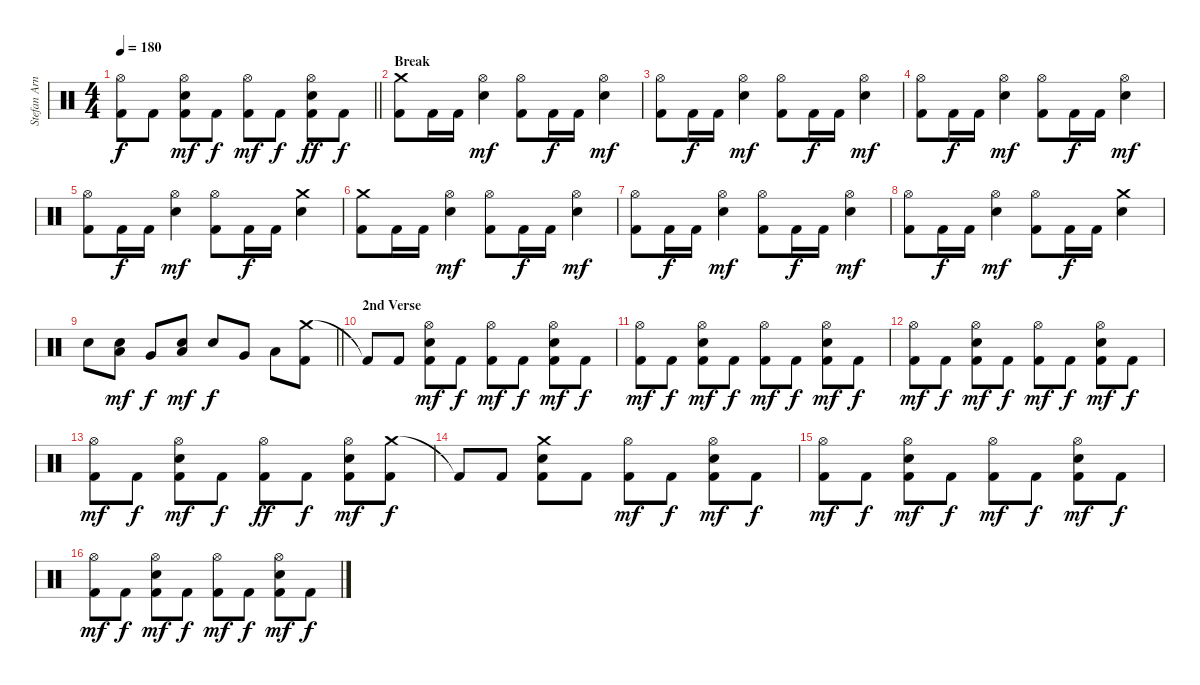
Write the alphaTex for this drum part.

\track ("Stefan Arnold" "Stefan Arn") {instrument percussion}
\staff {score}
\articulation defaults
\ts (4 4)
\tempo 180
\clef neutral
\barLineRight lightlight
\ks c
("Hi-Hat (open)" "Kick (hit) 2").8{dy f} "Kick (hit) 2".8 ("Hi-Hat (open)" "Electric Snare (hit)" "Kick (hit) 2").8{dy mf} "Kick (hit) 2".8{dy f} ("Hi-Hat (open)" "Kick (hit) 2").8{dy mf} "Kick (hit) 2".8{dy f} ("Hi-Hat (open)" "Electric Snare (hit)" "Kick (hit) 2").8{dy ff} "Kick (hit) 2".8{dy f} |
\section ("" "Break")
("Crash medium (hit)" "Kick (hit) 2").8 "Kick (hit) 2".16 "Kick (hit) 2".16 ("Hi-Hat (open)" "Electric Snare (hit)").4{dy mf} ("Hi-Hat (open)" "Kick (hit) 2").8 "Kick (hit) 2".16{dy f} "Kick (hit) 2".16 ("Hi-Hat (open)" "Electric Snare (hit)").4{dy mf} |
("Hi-Hat (open)" "Kick (hit) 2").8 "Kick (hit) 2".16{dy f} "Kick (hit) 2".16 ("Hi-Hat (open)" "Electric Snare (hit)").4{dy mf} ("Hi-Hat (open)" "Kick (hit) 2").8 "Kick (hit) 2".16{dy f} "Kick (hit) 2".16 ("Hi-Hat (open)" "Electric Snare (hit)").4{dy mf} |
("Hi-Hat (open)" "Kick (hit) 2").8 "Kick (hit) 2".16{dy f} "Kick (hit) 2".16 ("Hi-Hat (open)" "Electric Snare (hit)").4{dy mf} ("Hi-Hat (open)" "Kick (hit) 2").8 "Kick (hit) 2".16{dy f} "Kick (hit) 2".16 ("Hi-Hat (open)" "Electric Snare (hit)").4{dy mf} |
("Hi-Hat (open)" "Kick (hit) 2").8 "Kick (hit) 2".16{dy f} "Kick (hit) 2".16 ("Hi-Hat (open)" "Electric Snare (hit)").4{dy mf} ("Hi-Hat (open)" "Kick (hit) 2").8 "Kick (hit) 2".16{dy f} "Kick (hit) 2".16 ("Crash medium (hit)" "Electric Snare (hit)").4 |
("Crash medium (hit)" "Kick (hit) 2").8 "Kick (hit) 2".16 "Kick (hit) 2".16 ("Hi-Hat (open)" "Electric Snare (hit)").4{dy mf} ("Hi-Hat (open)" "Kick (hit) 2").8 "Kick (hit) 2".16{dy f} "Kick (hit) 2".16 ("Hi-Hat (open)" "Electric Snare (hit)").4{dy mf} |
("Hi-Hat (open)" "Kick (hit) 2").8 "Kick (hit) 2".16{dy f} "Kick (hit) 2".16 ("Hi-Hat (open)" "Electric Snare (hit)").4{dy mf} ("Hi-Hat (open)" "Kick (hit) 2").8 "Kick (hit) 2".16{dy f} "Kick (hit) 2".16 ("Hi-Hat (open)" "Electric Snare (hit)").4{dy mf} |
("Hi-Hat (open)" "Kick (hit) 2").8 "Kick (hit) 2".16{dy f} "Kick (hit) 2".16 ("Hi-Hat (open)" "Electric Snare (hit)").4{dy mf} ("Hi-Hat (open)" "Kick (hit) 2").8 "Kick (hit) 2".16{dy f} "Kick (hit) 2".16 ("Crash medium (hit)" "Electric Snare (hit)").4 |
\barLineRight lightlight "Electric Snare (hit)".8
("Electric Snare (hit)" "Low Tom (hit)").8{dy mf} "Very Low Tom (hit)".8{dy f} ("Electric Snare (hit)" "Low Tom (hit)").8{dy mf} "Electric Snare (hit)".8{dy f} "Very Low Tom (hit)".8 "Low Floor Tom (hit)".8 ("Crash medium (hit)" "Kick (hit) 2").8 |
\section ("" "2nd Verse")
"Kick (hit) 2"{t}.8 "Kick (hit) 2".8 ("Hi-Hat (open)" "Electric Snare (hit)" "Kick (hit) 2").8{dy mf} "Kick (hit) 2".8{dy f} ("Hi-Hat (open)" "Kick (hit) 2").8{dy mf} "Kick (hit) 2".8{dy f} ("Hi-Hat (open)" "Electric Snare (hit)" "Kick (hit) 2").8{dy mf} "Kick (hit) 2".8{dy f} |
("Hi-Hat (open)" "Kick (hit) 2").8{dy mf} "Kick (hit) 2".8{dy f} ("Hi-Hat (open)" "Electric Snare (hit)" "Kick (hit) 2").8{dy mf} "Kick (hit) 2".8{dy f} ("Hi-Hat (open)" "Kick (hit) 2").8{dy mf} "Kick (hit) 2".8{dy f} ("Hi-Hat (open)" "Electric Snare (hit)" "Kick (hit) 2").8{dy mf} "Kick (hit) 2".8{dy f} |
("Hi-Hat (open)" "Kick (hit) 2").8{dy mf} "Kick (hit) 2".8{dy f} ("Hi-Hat (open)" "Electric Snare (hit)" "Kick (hit) 2").8{dy mf} "Kick (hit) 2".8{dy f} ("Hi-Hat (open)" "Kick (hit) 2").8{dy mf} "Kick (hit) 2".8{dy f} ("Hi-Hat (open)" "Electric Snare (hit)" "Kick (hit) 2").8{dy mf} "Kick (hit) 2".8{dy f} |
("Hi-Hat (open)" "Kick (hit) 2").8{dy mf} "Kick (hit) 2".8{dy f} ("Hi-Hat (open)" "Electric Snare (hit)" "Kick (hit) 2").8{dy mf} "Kick (hit) 2".8{dy f} ("Hi-Hat (open)" "Kick (hit) 2").8{dy ff} "Kick (hit) 2".8{dy f} ("Hi-Hat (open)" "Electric Snare (hit)" "Kick (hit) 2").8{dy mf} ("Crash medium (hit)" "Kick (hit) 2").8{dy f} |
"Kick (hit) 2"{t}.8 "Kick (hit) 2".8 ("Crash medium (hit)" "Electric Snare (hit)" "Kick (hit) 2").8 "Kick (hit) 2".8 ("Hi-Hat (open)" "Kick (hit) 2").8{dy mf} "Kick (hit) 2".8{dy f} ("Hi-Hat (open)" "Electric Snare (hit)" "Kick (hit) 2").8{dy mf} "Kick (hit) 2".8{dy f} |
("Hi-Hat (open)" "Kick (hit) 2").8{dy mf} "Kick (hit) 2".8{dy f} ("Hi-Hat (open)" "Electric Snare (hit)" "Kick (hit) 2").8{dy mf} "Kick (hit) 2".8{dy f} ("Hi-Hat (open)" "Kick (hit) 2").8{dy mf} "Kick (hit) 2".8{dy f} ("Hi-Hat (open)" "Electric Snare (hit)" "Kick (hit) 2").8{dy mf} "Kick (hit) 2".8{dy f} |
("Hi-Hat (open)" "Kick (hit) 2").8{dy mf} "Kick (hit) 2".8{dy f} ("Hi-Hat (open)" "Electric Snare (hit)" "Kick (hit) 2").8{dy mf} "Kick (hit) 2".8{dy f} ("Hi-Hat (open)" "Kick (hit) 2").8{dy mf} "Kick (hit) 2".8{dy f} ("Hi-Hat (open)" "Electric Snare (hit)" "Kick (hit) 2").8{dy mf} "Kick (hit) 2".8{dy f}
